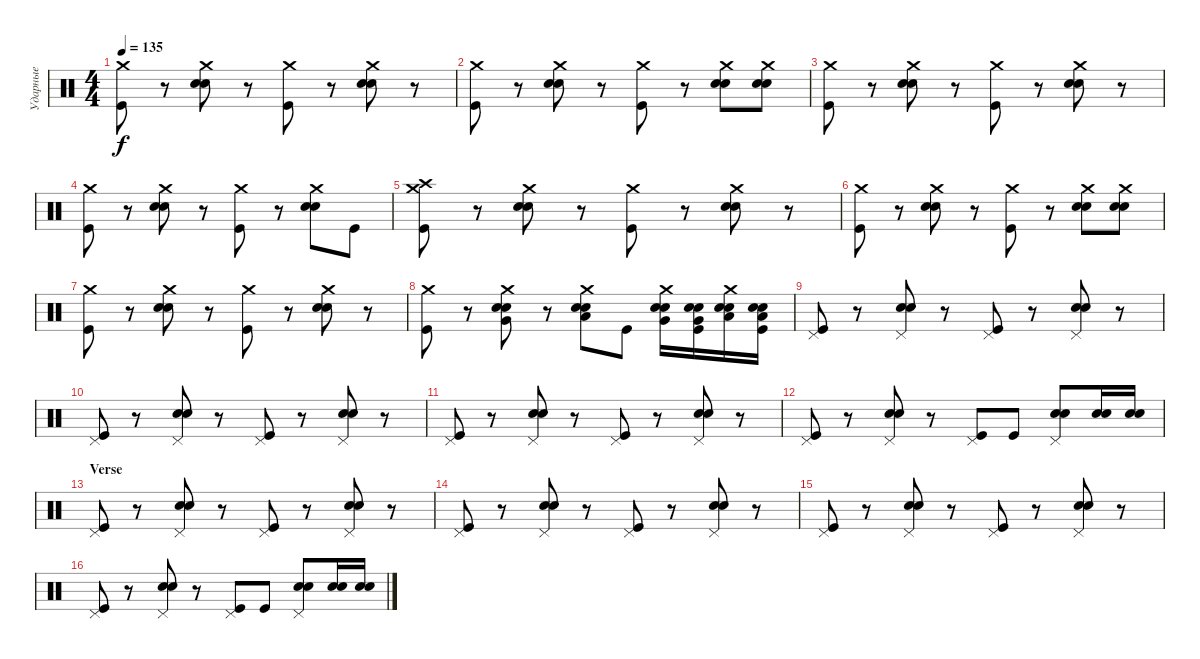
\track ("Ударные" "Ударные") {instrument percussion}
\staff {score}
\articulation defaults
\ts (4 4)
\tempo 135
\clef neutral
\ks c
("Crash medium (hit)" "Kick (hit)").8{dy f} r.8 ("Crash medium (hit)" "Electric Snare (hit)" "Electric Snare (hit)").8 r.8 ("Crash medium (hit)" "Kick (hit)").8 r.8 ("Crash medium (hit)" "Electric Snare (hit)" "Electric Snare (hit)").8 r.8 |
("Crash medium (hit)" "Kick (hit)").8 r.8 ("Crash medium (hit)" "Electric Snare (hit)" "Electric Snare (hit)").8 r.8 ("Crash medium (hit)" "Kick (hit)").8 r.8 ("Crash medium (hit)" "Electric Snare (hit)" "Electric Snare (hit)").8 ("Crash medium (hit)" "Electric Snare (hit)" "Electric Snare (hit)").8 |
("Crash medium (hit)" "Kick (hit)").8 r.8 ("Crash medium (hit)" "Electric Snare (hit)" "Electric Snare (hit)").8 r.8 ("Crash medium (hit)" "Kick (hit)").8 r.8 ("Crash medium (hit)" "Electric Snare (hit)" "Electric Snare (hit)").8 r.8 |
("Crash medium (hit)" "Kick (hit)").8 r.8 ("Crash medium (hit)" "Electric Snare (hit)" "Electric Snare (hit)").8 r.8 ("Crash medium (hit)" "Kick (hit)").8 r.8 ("Crash medium (hit)" "Electric Snare (hit)" "Electric Snare (hit)").8 "Kick (hit)".8 |
("Crash medium (hit)" "Crash high (hit)" "Kick (hit)").8 r.8 ("Crash medium (hit)" "Electric Snare (hit)" "Electric Snare (hit)").8 r.8 ("Crash medium (hit)" "Kick (hit)").8 r.8 ("Crash medium (hit)" "Electric Snare (hit)" "Electric Snare (hit)").8 r.8 |
("Crash medium (hit)" "Kick (hit)").8 r.8 ("Crash medium (hit)" "Electric Snare (hit)" "Electric Snare (hit)").8 r.8 ("Crash medium (hit)" "Kick (hit)").8 r.8 ("Crash medium (hit)" "Electric Snare (hit)" "Electric Snare (hit)").8 ("Crash medium (hit)" "Electric Snare (hit)" "Electric Snare (hit)").8 |
("Crash medium (hit)" "Kick (hit)").8 r.8 ("Crash medium (hit)" "Electric Snare (hit)" "Electric Snare (hit)").8 r.8 ("Crash medium (hit)" "Kick (hit)").8 r.8 ("Crash medium (hit)" "Electric Snare (hit)" "Electric Snare (hit)").8 r.8 |
("Crash medium (hit)" "Kick (hit)").8 r.8 ("Crash medium (hit)" "Electric Snare (hit)" "Electric Snare (hit)" "Very Low Tom (hit)").8 r.8 ("Crash medium (hit)" "Electric Snare (hit)" "Electric Snare (hit)" "Low Floor Tom (hit)").8 "Kick (hit)".8 ("Crash medium (hit)" "Electric Snare (hit)" "Electric Snare (hit)" "Very Low Tom (hit)").16 ("Electric Snare (hit)" "Electric Snare (hit)" "Very Low Tom (hit)" "Kick (hit)").16 ("Crash medium (hit)" "Electric Snare (hit)" "Electric Snare (hit)" "Low Floor Tom (hit)").16 ("Electric Snare (hit)" "Electric Snare (hit)" "Low Floor Tom (hit)" "Kick (hit)").16 |
\section ("" "")
("Pedal Hi-Hat (hit)" "Kick (hit)").8 r.8 ("Pedal Hi-Hat (hit)" "Electric Snare (hit)" "Electric Snare (hit)").8 r.8 ("Pedal Hi-Hat (hit)" "Kick (hit)").8 r.8 ("Pedal Hi-Hat (hit)" "Electric Snare (hit)" "Electric Snare (hit)").8 r.8 |
("Pedal Hi-Hat (hit)" "Kick (hit)").8 r.8 ("Pedal Hi-Hat (hit)" "Electric Snare (hit)" "Electric Snare (hit)").8 r.8 ("Pedal Hi-Hat (hit)" "Kick (hit)").8 r.8 ("Pedal Hi-Hat (hit)" "Electric Snare (hit)" "Electric Snare (hit)").8 r.8 |
("Pedal Hi-Hat (hit)" "Kick (hit)").8 r.8 ("Pedal Hi-Hat (hit)" "Electric Snare (hit)" "Electric Snare (hit)").8 r.8 ("Pedal Hi-Hat (hit)" "Kick (hit)").8 r.8 ("Pedal Hi-Hat (hit)" "Electric Snare (hit)" "Electric Snare (hit)").8 r.8 |
("Pedal Hi-Hat (hit)" "Kick (hit)").8 r.8 ("Pedal Hi-Hat (hit)" "Electric Snare (hit)" "Electric Snare (hit)").8 r.8 ("Pedal Hi-Hat (hit)" "Kick (hit)").8 "Kick (hit)".8 ("Pedal Hi-Hat (hit)" "Electric Snare (hit)" "Electric Snare (hit)").8 ("Electric Snare (hit)" "Electric Snare (hit)").16 ("Electric Snare (hit)" "Electric Snare (hit)").16 |
\section ("" "Verse")
("Pedal Hi-Hat (hit)" "Kick (hit)").8 r.8 ("Pedal Hi-Hat (hit)" "Electric Snare (hit)" "Electric Snare (hit)").8 r.8 ("Pedal Hi-Hat (hit)" "Kick (hit)").8 r.8 ("Pedal Hi-Hat (hit)" "Electric Snare (hit)" "Electric Snare (hit)").8 r.8 |
("Pedal Hi-Hat (hit)" "Kick (hit)").8 r.8 ("Pedal Hi-Hat (hit)" "Electric Snare (hit)" "Electric Snare (hit)").8 r.8 ("Pedal Hi-Hat (hit)" "Kick (hit)").8 r.8 ("Pedal Hi-Hat (hit)" "Electric Snare (hit)" "Electric Snare (hit)").8 r.8 |
("Pedal Hi-Hat (hit)" "Kick (hit)").8 r.8 ("Pedal Hi-Hat (hit)" "Electric Snare (hit)" "Electric Snare (hit)").8 r.8 ("Pedal Hi-Hat (hit)" "Kick (hit)").8 r.8 ("Pedal Hi-Hat (hit)" "Electric Snare (hit)" "Electric Snare (hit)").8 r.8 |
("Pedal Hi-Hat (hit)" "Kick (hit)").8 r.8 ("Pedal Hi-Hat (hit)" "Electric Snare (hit)" "Electric Snare (hit)").8 r.8 ("Pedal Hi-Hat (hit)" "Kick (hit)").8 "Kick (hit)".8 ("Pedal Hi-Hat (hit)" "Electric Snare (hit)" "Electric Snare (hit)").8 ("Electric Snare (hit)" "Electric Snare (hit)").16 ("Electric Snare (hit)" "Electric Snare (hit)").16
